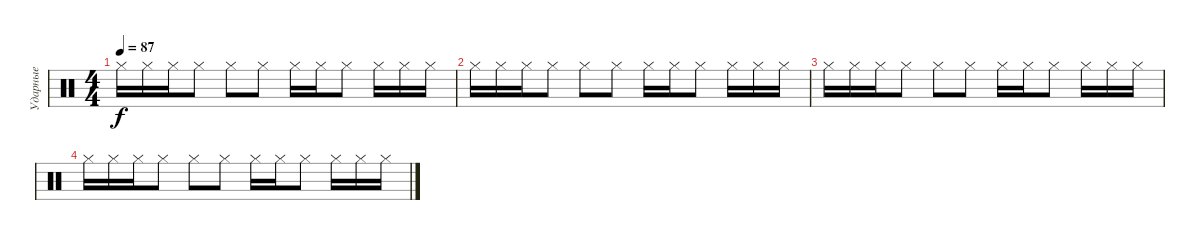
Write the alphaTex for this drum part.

\track ("Ударные" "Ударные") {instrument percussion}
\staff {score}
\articulation defaults
\ts (4 4)
\tempo 87
\clef neutral
\ks c "Hi-Hat (closed)".16{dy f} "Hi-Hat (closed)".16 "Hi-Hat (closed)".16 "Hi-Hat (closed)".8 "Hi-Hat (closed)".8 "Hi-Hat (closed)".8 "Hi-Hat (closed)".16 "Hi-Hat (closed)".16 "Hi-Hat (closed)".8 "Hi-Hat (closed)".16 "Hi-Hat (closed)".16 "Hi-Hat (closed)".16
|
"Hi-Hat (closed)".16 "Hi-Hat (closed)".16 "Hi-Hat (closed)".16 "Hi-Hat (closed)".8 "Hi-Hat (closed)".8 "Hi-Hat (closed)".8 "Hi-Hat (closed)".16 "Hi-Hat (closed)".16 "Hi-Hat (closed)".8 "Hi-Hat (closed)".16 "Hi-Hat (closed)".16 "Hi-Hat (closed)".16 |
"Hi-Hat (closed)".16 "Hi-Hat (closed)".16 "Hi-Hat (closed)".16 "Hi-Hat (closed)".8 "Hi-Hat (closed)".8 "Hi-Hat (closed)".8 "Hi-Hat (closed)".16 "Hi-Hat (closed)".16 "Hi-Hat (closed)".8 "Hi-Hat (closed)".16 "Hi-Hat (closed)".16 "Hi-Hat (closed)".16 |
"Hi-Hat (closed)".16 "Hi-Hat (closed)".16 "Hi-Hat (closed)".16 "Hi-Hat (closed)".8 "Hi-Hat (closed)".8 "Hi-Hat (closed)".8 "Hi-Hat (closed)".16 "Hi-Hat (closed)".16 "Hi-Hat (closed)".8 "Hi-Hat (closed)".16 "Hi-Hat (closed)".16 "Hi-Hat (closed)".16
